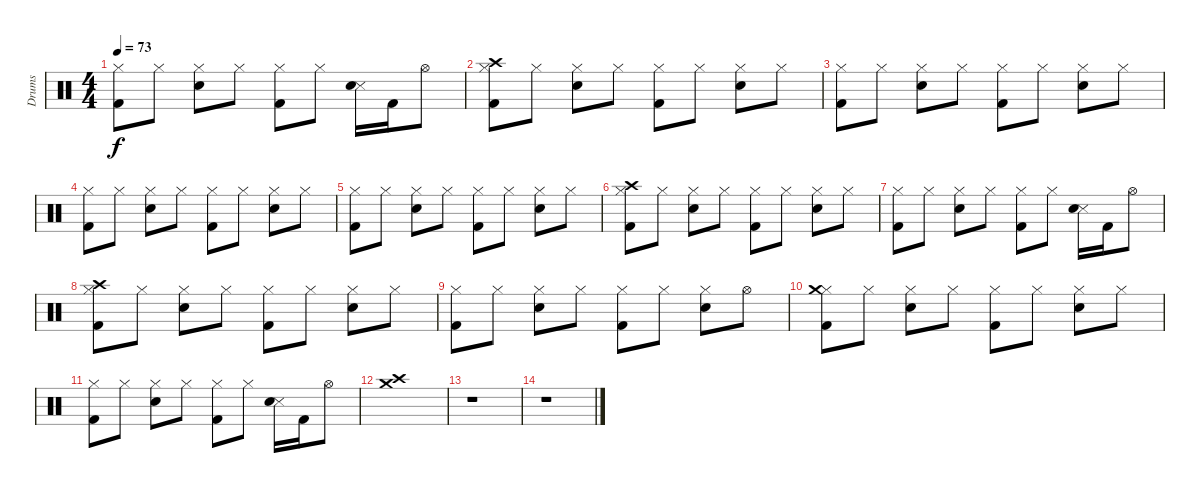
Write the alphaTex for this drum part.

\track ("Drums" "Drums") {instrument percussion}
\staff {score}
\articulation defaults
\ts (4 4)
\tempo 73
\clef neutral
\ks c
("Hi-Hat (closed)" "Kick (hit) 2").8{dy f} "Hi-Hat (closed)".8 ("Hi-Hat (closed)" "Electric Snare (hit)").8 "Hi-Hat (closed)".8 ("Hi-Hat (closed)" "Kick (hit) 2").8 "Hi-Hat (closed)".8 ("Snare (side stick) 3" "Electric Snare (hit)").16 "Kick (hit) 2".16 "Hi-Hat (open)".8 |
("Hi-Hat (closed)" "Kick (hit) 2" "Crash high (hit)").8 "Hi-Hat (closed)".8 ("Hi-Hat (closed)" "Electric Snare (hit)").8 "Hi-Hat (closed)".8 ("Hi-Hat (closed)" "Kick (hit) 2").8 "Hi-Hat (closed)".8 ("Hi-Hat (closed)" "Electric Snare (hit)").8 "Hi-Hat (closed)".8 |
("Hi-Hat (closed)" "Kick (hit) 2").8 "Hi-Hat (closed)".8 ("Hi-Hat (closed)" "Electric Snare (hit)").8 "Hi-Hat (closed)".8 ("Hi-Hat (closed)" "Kick (hit) 2").8 "Hi-Hat (closed)".8 ("Hi-Hat (closed)" "Electric Snare (hit)").8 "Hi-Hat (closed)".8 |
("Hi-Hat (closed)" "Kick (hit) 2").8 "Hi-Hat (closed)".8 ("Hi-Hat (closed)" "Electric Snare (hit)").8 "Hi-Hat (closed)".8 ("Hi-Hat (closed)" "Kick (hit) 2").8 "Hi-Hat (closed)".8 ("Hi-Hat (closed)" "Electric Snare (hit)").8 "Hi-Hat (closed)".8 |
("Hi-Hat (closed)" "Kick (hit) 2").8 "Hi-Hat (closed)".8 ("Hi-Hat (closed)" "Electric Snare (hit)").8 "Hi-Hat (closed)".8 ("Hi-Hat (closed)" "Kick (hit) 2").8 "Hi-Hat (closed)".8 ("Hi-Hat (closed)" "Electric Snare (hit)").8 "Hi-Hat (closed)".8 |
("Hi-Hat (closed)" "Kick (hit) 2" "Crash high (hit)").8 "Hi-Hat (closed)".8 ("Hi-Hat (closed)" "Electric Snare (hit)").8 "Hi-Hat (closed)".8 ("Hi-Hat (closed)" "Kick (hit) 2").8 "Hi-Hat (closed)".8 ("Hi-Hat (closed)" "Electric Snare (hit)").8 "Hi-Hat (closed)".8 |
("Hi-Hat (closed)" "Kick (hit) 2").8 "Hi-Hat (closed)".8 ("Hi-Hat (closed)" "Electric Snare (hit)").8 "Hi-Hat (closed)".8 ("Hi-Hat (closed)" "Kick (hit) 2").8 "Hi-Hat (closed)".8 ("Snare (side stick) 3" "Electric Snare (hit)").16 "Kick (hit) 2".16 "Hi-Hat (open)".8 |
("Hi-Hat (closed)" "Kick (hit) 2" "Crash high (hit)").8 "Hi-Hat (closed)".8 ("Hi-Hat (closed)" "Electric Snare (hit)").8 "Hi-Hat (closed)".8 ("Hi-Hat (closed)" "Kick (hit) 2").8 "Hi-Hat (closed)".8 ("Hi-Hat (closed)" "Electric Snare (hit)").8 "Hi-Hat (closed)".8 |
("Hi-Hat (closed)" "Kick (hit) 2").8 "Hi-Hat (closed)".8 ("Hi-Hat (closed)" "Electric Snare (hit)").8 "Hi-Hat (closed)".8 ("Hi-Hat (closed)" "Kick (hit) 2").8 "Hi-Hat (closed)".8 ("Hi-Hat (closed)" "Electric Snare (hit)").8 "Hi-Hat (open)".8 |
("Hi-Hat (closed)" "Kick (hit) 2" "Crash medium (hit)").8 "Hi-Hat (closed)".8 ("Hi-Hat (closed)" "Electric Snare (hit)").8 "Hi-Hat (closed)".8 ("Hi-Hat (closed)" "Kick (hit) 2").8 "Hi-Hat (closed)".8 ("Hi-Hat (closed)" "Electric Snare (hit)").8 "Hi-Hat (closed)".8 |
("Hi-Hat (closed)" "Kick (hit) 2").8 "Hi-Hat (closed)".8 ("Hi-Hat (closed)" "Electric Snare (hit)").8 "Hi-Hat (closed)".8 ("Hi-Hat (closed)" "Kick (hit) 2").8 "Hi-Hat (closed)".8 ("Snare (side stick) 3" "Electric Snare (hit)").16 "Kick (hit) 2".16 "Hi-Hat (open)".8 |
("Crash medium (hit)" "Crash high (hit)").1 |
r.1 |
r.1
